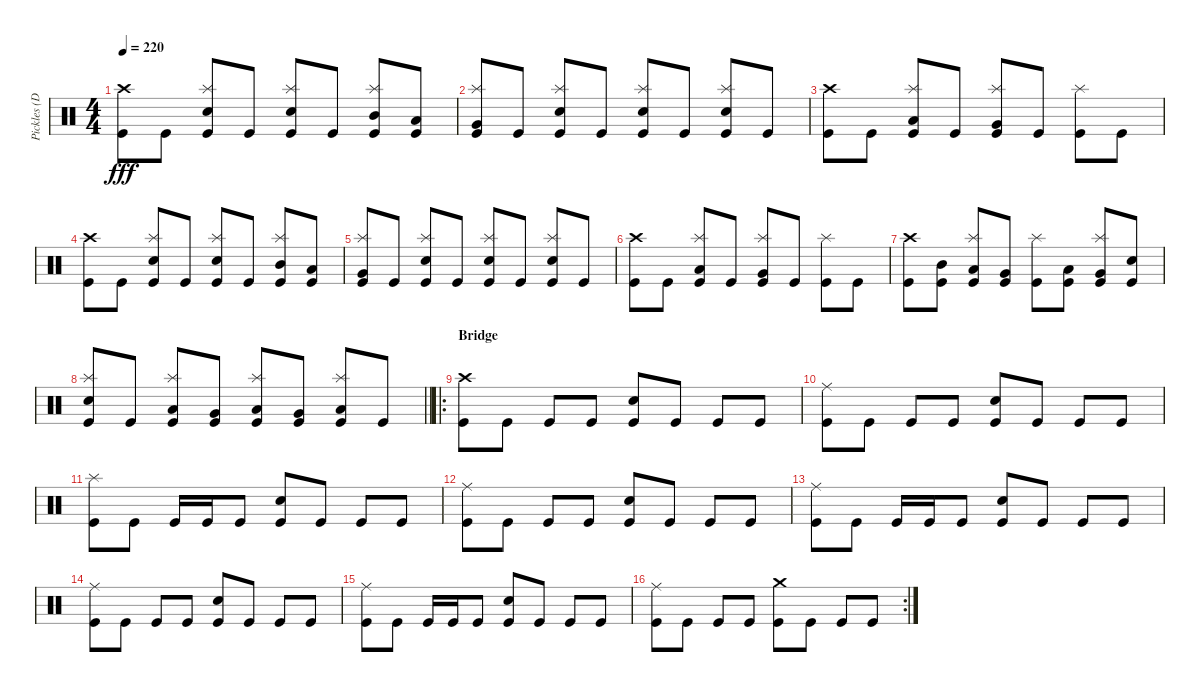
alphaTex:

\track ("Pickles (Drums)" "Pickles (D") {instrument percussion}
\staff {score}
\articulation defaults
\ts (4 4)
\tempo 220
\clef neutral
\ks c
("Crash high (hit)" "Kick (hit)").8{dy fff} "Kick (hit)".8 ("Splash (hit)" "Electric Snare (hit)" "Kick (hit)").8 "Kick (hit)".8 ("Splash (hit)" "Electric Snare (hit)" "Kick (hit)").8 "Kick (hit)".8 ("Splash (hit)" "Mid Tom (hit)" "Kick (hit)").8 ("Low Tom (hit)" "Kick (hit)").8 |
("Splash (hit)" "Very Low Tom (hit)" "Kick (hit)").8 "Kick (hit)".8 ("Splash (hit)" "Electric Snare (hit)" "Kick (hit)").8 "Kick (hit)".8 ("Splash (hit)" "Electric Snare (hit)" "Kick (hit)").8 "Kick (hit)".8 ("Splash (hit)" "Electric Snare (hit)" "Kick (hit)").8 "Kick (hit)".8 |
("Crash high (hit)" "Kick (hit)").8 "Kick (hit)".8 ("Splash (hit)" "Low Tom (hit)" "Kick (hit)").8 "Kick (hit)".8 ("Splash (hit)" "Very Low Tom (hit)" "Kick (hit)").8 "Kick (hit)".8 ("Splash (hit)" "Kick (hit)").8 "Kick (hit)".8 |
("Crash high (hit)" "Kick (hit)").8 "Kick (hit)".8 ("Splash (hit)" "Electric Snare (hit)" "Kick (hit)").8 "Kick (hit)".8 ("Splash (hit)" "Electric Snare (hit)" "Kick (hit)").8 "Kick (hit)".8 ("Splash (hit)" "Mid Tom (hit)" "Kick (hit)").8 ("Low Tom (hit)" "Kick (hit)").8 |
("Splash (hit)" "Very Low Tom (hit)" "Kick (hit)").8 "Kick (hit)".8 ("Splash (hit)" "Electric Snare (hit)" "Kick (hit)").8 "Kick (hit)".8 ("Splash (hit)" "Electric Snare (hit)" "Kick (hit)").8 "Kick (hit)".8 ("Splash (hit)" "Electric Snare (hit)" "Kick (hit)").8 "Kick (hit)".8 |
("Crash high (hit)" "Kick (hit)").8 "Kick (hit)".8 ("Splash (hit)" "Low Tom (hit)" "Kick (hit)").8 "Kick (hit)".8 ("Splash (hit)" "Very Low Tom (hit)" "Kick (hit)").8 "Kick (hit)".8 ("Splash (hit)" "Kick (hit)").8 "Kick (hit)".8 |
("Crash high (hit)" "Kick (hit)").8 ("Mid Tom (hit)" "Kick (hit)").8 ("Splash (hit)" "Low Tom (hit)" "Kick (hit)").8 ("Very Low Tom (hit)" "Kick (hit)").8 ("Splash (hit)" "Kick (hit)").8 ("Low Tom (hit)" "Kick (hit)").8 ("Splash (hit)" "Very Low Tom (hit)" "Kick (hit)").8 ("Electric Snare (hit)" "Kick (hit)").8 |
\barLineRight lightlight
("Splash (hit)" "Electric Snare (hit)" "Kick (hit)").8 "Kick (hit)".8 ("Splash (hit)" "Low Tom (hit)" "Kick (hit)").8 ("Very Low Tom (hit)" "Kick (hit)").8 ("Splash (hit)" "Low Floor Tom (hit)" "Kick (hit)").8 ("Very Low Tom (hit)" "Kick (hit)").8 ("Splash (hit)" "Low Floor Tom (hit)" "Kick (hit)").8 "Kick (hit)".8 |
\ro
\section ("" "Bridge")
("Crash high (hit)" "Kick (hit)").8 "Kick (hit)".8 "Kick (hit)".8 "Kick (hit)".8 ("Electric Snare (hit)" "Kick (hit)").8 "Kick (hit)".8 "Kick (hit)".8 "Kick (hit)".8 |
("Ride (middle)" "Kick (hit)").8 "Kick (hit)".8 "Kick (hit)".8 "Kick (hit)".8 ("Electric Snare (hit)" "Kick (hit)").8 "Kick (hit)".8 "Kick (hit)".8 "Kick (hit)".8 |
("Splash (hit)" "Kick (hit)").8 "Kick (hit)".8 "Kick (hit)".16 "Kick (hit)".16 "Kick (hit)".8 ("Electric Snare (hit)" "Kick (hit)").8 "Kick (hit)".8 "Kick (hit)".8 "Kick (hit)".8 |
("Ride (middle)" "Kick (hit)").8 "Kick (hit)".8 "Kick (hit)".8 "Kick (hit)".8 ("Electric Snare (hit)" "Kick (hit)").8 "Kick (hit)".8 "Kick (hit)".8 "Kick (hit)".8 |
("Ride (middle)" "Kick (hit)").8 "Kick (hit)".8 "Kick (hit)".16 "Kick (hit)".16 "Kick (hit)".8 ("Electric Snare (hit)" "Kick (hit)").8 "Kick (hit)".8 "Kick (hit)".8 "Kick (hit)".8 |
("Ride (middle)" "Kick (hit)").8 "Kick (hit)".8 "Kick (hit)".8 "Kick (hit)".8 ("Electric Snare (hit)" "Kick (hit)").8 "Kick (hit)".8 "Kick (hit)".8 "Kick (hit)".8 |
("Ride (middle)" "Kick (hit)").8 "Kick (hit)".8 "Kick (hit)".16 "Kick (hit)".16 "Kick (hit)".8 ("Electric Snare (hit)" "Kick (hit)").8 "Kick (hit)".8 "Kick (hit)".8 "Kick (hit)".8 |
\rc 2
("Ride (middle)" "Kick (hit)").8 "Kick (hit)".8 "Kick (hit)".8 "Kick (hit)".8 ("Crash medium (hit)" "Kick (hit)").8 "Kick (hit)".8 "Kick (hit)".8 "Kick (hit)".8
